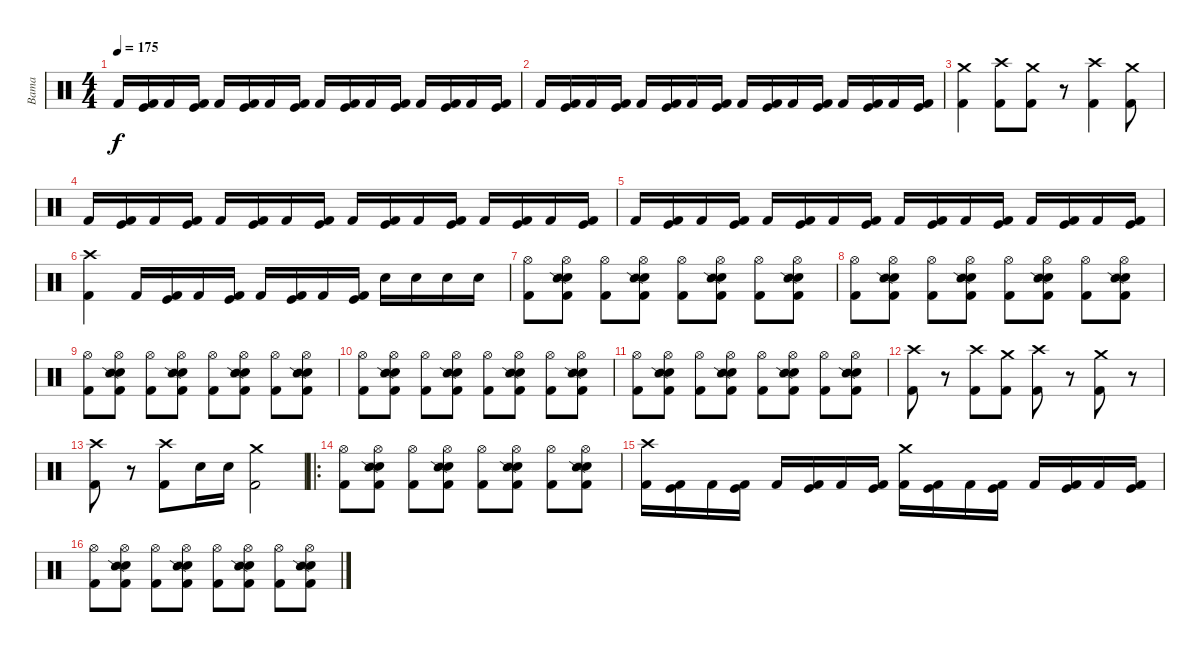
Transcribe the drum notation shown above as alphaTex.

\track ("Bama" "Bama") {instrument percussion}
\staff {score}
\articulation defaults
\ts (4 4)
\tempo 175
\clef neutral
\ks c "Kick (hit) 2".16{dy f}
("Kick (hit)" "Kick (hit) 2").16 "Kick (hit) 2".16 ("Kick (hit)" "Kick (hit) 2").16 "Kick (hit) 2".16 ("Kick (hit)" "Kick (hit) 2").16 "Kick (hit) 2".16 ("Kick (hit)" "Kick (hit) 2").16 "Kick (hit) 2".16 ("Kick (hit)" "Kick (hit) 2").16 "Kick (hit) 2".16 ("Kick (hit)" "Kick (hit) 2").16 "Kick (hit) 2".16 ("Kick (hit)" "Kick (hit) 2").16 "Kick (hit) 2".16 ("Kick (hit)" "Kick (hit) 2").16 |
"Kick (hit) 2".16 ("Kick (hit)" "Kick (hit) 2").16 "Kick (hit) 2".16 ("Kick (hit)" "Kick (hit) 2").16 "Kick (hit) 2".16 ("Kick (hit)" "Kick (hit) 2").16 "Kick (hit) 2".16 ("Kick (hit)" "Kick (hit) 2").16 "Kick (hit) 2".16 ("Kick (hit)" "Kick (hit) 2").16 "Kick (hit) 2".16 ("Kick (hit)" "Kick (hit) 2").16 "Kick (hit) 2".16 ("Kick (hit)" "Kick (hit) 2").16 "Kick (hit) 2".16 ("Kick (hit)" "Kick (hit) 2").16 |
("Crash medium (hit)" "Kick (hit) 2").4 ("Crash high (hit)" "Kick (hit) 2").8 ("Crash medium (hit)" "Kick (hit) 2").8 r.8 ("Crash high (hit)" "Kick (hit) 2").4 ("Crash medium (hit)" "Kick (hit) 2").8 |
"Kick (hit) 2".16 ("Kick (hit)" "Kick (hit) 2").16 "Kick (hit) 2".16 ("Kick (hit)" "Kick (hit) 2").16 "Kick (hit) 2".16 ("Kick (hit)" "Kick (hit) 2").16 "Kick (hit) 2".16 ("Kick (hit)" "Kick (hit) 2").16 "Kick (hit) 2".16 ("Kick (hit)" "Kick (hit) 2").16 "Kick (hit) 2".16 ("Kick (hit)" "Kick (hit) 2").16 "Kick (hit) 2".16 ("Kick (hit)" "Kick (hit) 2").16 "Kick (hit) 2".16 ("Kick (hit)" "Kick (hit) 2").16 |
"Kick (hit) 2".16 ("Kick (hit)" "Kick (hit) 2").16 "Kick (hit) 2".16 ("Kick (hit)" "Kick (hit) 2").16 "Kick (hit) 2".16 ("Kick (hit)" "Kick (hit) 2").16 "Kick (hit) 2".16 ("Kick (hit)" "Kick (hit) 2").16 "Kick (hit) 2".16 ("Kick (hit)" "Kick (hit) 2").16 "Kick (hit) 2".16 ("Kick (hit)" "Kick (hit) 2").16 "Kick (hit) 2".16 ("Kick (hit)" "Kick (hit) 2").16 "Kick (hit) 2".16 ("Kick (hit)" "Kick (hit) 2").16 |
("Crash high (hit)" "Kick (hit) 2").4 "Kick (hit) 2".16 ("Kick (hit)" "Kick (hit) 2").16 "Kick (hit) 2".16 ("Kick (hit)" "Kick (hit) 2").16 "Kick (hit) 2".16 ("Kick (hit)" "Kick (hit) 2").16 "Kick (hit) 2".16 ("Kick (hit)" "Kick (hit) 2").16 "Electric Snare (hit)".16 "Electric Snare (hit)".16 "Electric Snare (hit)".16 "Electric Snare (hit)".16 |
("Hi-Hat (open)" "Kick (hit) 2").8 ("Hi-Hat (open)" "Electric Snare (hit)" "Snare (side stick) 2" "Kick (hit) 2").8 ("Hi-Hat (open)" "Kick (hit) 2").8 ("Hi-Hat (open)" "Electric Snare (hit)" "Snare (side stick) 2" "Kick (hit) 2").8 ("Hi-Hat (open)" "Kick (hit) 2").8 ("Hi-Hat (open)" "Electric Snare (hit)" "Snare (side stick) 2" "Kick (hit) 2").8 ("Hi-Hat (open)" "Kick (hit) 2").8 ("Hi-Hat (open)" "Electric Snare (hit)" "Snare (side stick) 2" "Kick (hit) 2").8 |
("Hi-Hat (open)" "Kick (hit) 2").8 ("Hi-Hat (open)" "Electric Snare (hit)" "Snare (side stick) 2" "Kick (hit) 2").8 ("Hi-Hat (open)" "Kick (hit) 2").8 ("Hi-Hat (open)" "Electric Snare (hit)" "Snare (side stick) 2" "Kick (hit) 2").8 ("Hi-Hat (open)" "Kick (hit) 2").8 ("Hi-Hat (open)" "Electric Snare (hit)" "Snare (side stick) 2" "Kick (hit) 2").8 ("Hi-Hat (open)" "Kick (hit) 2").8 ("Hi-Hat (open)" "Electric Snare (hit)" "Snare (side stick) 2" "Kick (hit) 2").8 |
("Hi-Hat (open)" "Kick (hit) 2").8 ("Hi-Hat (open)" "Electric Snare (hit)" "Snare (side stick) 2" "Kick (hit) 2").8 ("Hi-Hat (open)" "Kick (hit) 2").8 ("Hi-Hat (open)" "Electric Snare (hit)" "Snare (side stick) 2" "Kick (hit) 2").8 ("Hi-Hat (open)" "Kick (hit) 2").8 ("Hi-Hat (open)" "Electric Snare (hit)" "Snare (side stick) 2" "Kick (hit) 2").8 ("Hi-Hat (open)" "Kick (hit) 2").8 ("Hi-Hat (open)" "Electric Snare (hit)" "Snare (side stick) 2" "Kick (hit) 2").8 |
("Hi-Hat (open)" "Kick (hit) 2").8 ("Hi-Hat (open)" "Electric Snare (hit)" "Snare (side stick) 2" "Kick (hit) 2").8 ("Hi-Hat (open)" "Kick (hit) 2").8 ("Hi-Hat (open)" "Electric Snare (hit)" "Snare (side stick) 2" "Kick (hit) 2").8 ("Hi-Hat (open)" "Kick (hit) 2").8 ("Hi-Hat (open)" "Electric Snare (hit)" "Snare (side stick) 2" "Kick (hit) 2").8 ("Hi-Hat (open)" "Kick (hit) 2").8 ("Hi-Hat (open)" "Electric Snare (hit)" "Snare (side stick) 2" "Kick (hit) 2").8 |
("Hi-Hat (open)" "Kick (hit) 2").8 ("Hi-Hat (open)" "Electric Snare (hit)" "Snare (side stick) 2" "Kick (hit) 2").8 ("Hi-Hat (open)" "Kick (hit) 2").8 ("Hi-Hat (open)" "Electric Snare (hit)" "Snare (side stick) 2" "Kick (hit) 2").8 ("Hi-Hat (open)" "Kick (hit) 2").8 ("Hi-Hat (open)" "Electric Snare (hit)" "Snare (side stick) 2" "Kick (hit) 2").8 ("Hi-Hat (open)" "Kick (hit) 2").8 ("Hi-Hat (open)" "Electric Snare (hit)" "Snare (side stick) 2" "Kick (hit) 2").8 |
("Crash high (hit)" "Kick (hit) 2").8 r.8 ("Crash high (hit)" "Kick (hit) 2").8 ("Crash medium (hit)" "Kick (hit) 2").8 ("Crash high (hit)" "Kick (hit) 2").8 r.8 ("Crash medium (hit)" "Kick (hit) 2").8 r.8 |
("Crash high (hit)" "Kick (hit) 2").8 r.8 ("Crash high (hit)" "Kick (hit) 2").8 "Electric Snare (hit)".16 "Electric Snare (hit)".16 ("Crash medium (hit)" "Kick (hit) 2").2 |
\ro
("Hi-Hat (open)" "Kick (hit) 2").8 ("Hi-Hat (open)" "Electric Snare (hit)" "Snare (side stick) 2" "Kick (hit) 2").8 ("Hi-Hat (open)" "Kick (hit) 2").8 ("Hi-Hat (open)" "Electric Snare (hit)" "Snare (side stick) 2" "Kick (hit) 2").8 ("Hi-Hat (open)" "Kick (hit) 2").8 ("Hi-Hat (open)" "Electric Snare (hit)" "Snare (side stick) 2" "Kick (hit) 2").8 ("Hi-Hat (open)" "Kick (hit) 2").8 ("Hi-Hat (open)" "Electric Snare (hit)" "Snare (side stick) 2" "Kick (hit) 2").8 |
("Crash high (hit)" "Kick (hit) 2").16 ("Kick (hit)" "Kick (hit) 2").16 "Kick (hit) 2".16 ("Kick (hit)" "Kick (hit) 2").16 "Kick (hit) 2".16 ("Kick (hit)" "Kick (hit) 2").16 "Kick (hit) 2".16 ("Kick (hit)" "Kick (hit) 2").16 ("Crash medium (hit)" "Kick (hit) 2").16 ("Kick (hit)" "Kick (hit) 2").16 "Kick (hit) 2".16 ("Kick (hit)" "Kick (hit) 2").16 "Kick (hit) 2".16 ("Kick (hit)" "Kick (hit) 2").16 "Kick (hit) 2".16 ("Kick (hit)" "Kick (hit) 2").16 |
("Hi-Hat (open)" "Kick (hit) 2").8 ("Hi-Hat (open)" "Electric Snare (hit)" "Snare (side stick) 2" "Kick (hit) 2").8 ("Hi-Hat (open)" "Kick (hit) 2").8 ("Hi-Hat (open)" "Electric Snare (hit)" "Snare (side stick) 2" "Kick (hit) 2").8 ("Hi-Hat (open)" "Kick (hit) 2").8 ("Hi-Hat (open)" "Electric Snare (hit)" "Snare (side stick) 2" "Kick (hit) 2").8 ("Hi-Hat (open)" "Kick (hit) 2").8 ("Hi-Hat (open)" "Electric Snare (hit)" "Snare (side stick) 2" "Kick (hit) 2").8
